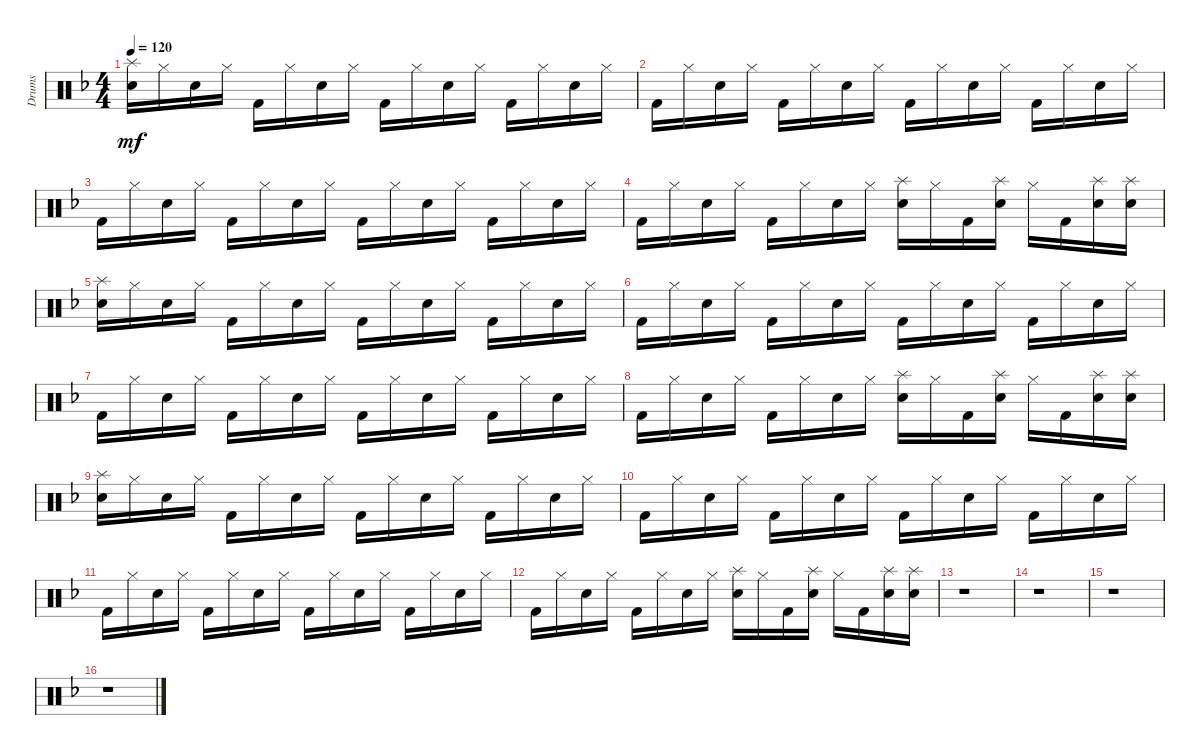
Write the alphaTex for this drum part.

\track ("Drums" "Drums") {instrument percussion}
\staff {score}
\articulation defaults
\ts (4 4)
\tempo 120
\clef neutral
\ks dminor
("Snare (hit) 2" "Splash (hit)").16{dy mf} "Hi-Hat (closed)".16 "Snare (hit) 2".16 "Hi-Hat (closed)".16 "Kick (hit) 2".16 "Hi-Hat (closed)".16 "Snare (hit) 2".16 "Hi-Hat (closed)".16 "Kick (hit) 2".16 "Hi-Hat (closed)".16 "Snare (hit) 2".16 "Hi-Hat (closed)".16 "Kick (hit) 2".16 "Hi-Hat (closed)".16 "Snare (hit) 2".16 "Hi-Hat (closed)".16 |
"Kick (hit) 2".16 "Hi-Hat (closed)".16 "Snare (hit) 2".16 "Hi-Hat (closed)".16 "Kick (hit) 2".16 "Hi-Hat (closed)".16 "Snare (hit) 2".16 "Hi-Hat (closed)".16 "Kick (hit) 2".16 "Hi-Hat (closed)".16 "Snare (hit) 2".16 "Hi-Hat (closed)".16 "Kick (hit) 2".16 "Hi-Hat (closed)".16 "Snare (hit) 2".16 "Hi-Hat (closed)".16 |
"Kick (hit) 2".16 "Hi-Hat (closed)".16 "Snare (hit) 2".16 "Hi-Hat (closed)".16 "Kick (hit) 2".16 "Hi-Hat (closed)".16 "Snare (hit) 2".16 "Hi-Hat (closed)".16 "Kick (hit) 2".16 "Hi-Hat (closed)".16 "Snare (hit) 2".16 "Hi-Hat (closed)".16 "Kick (hit) 2".16 "Hi-Hat (closed)".16 "Snare (hit) 2".16 "Hi-Hat (closed)".16 |
"Kick (hit) 2".16 "Hi-Hat (closed)".16 "Snare (hit) 2".16 "Hi-Hat (closed)".16 "Kick (hit) 2".16 "Hi-Hat (closed)".16 "Snare (hit) 2".16 "Hi-Hat (closed)".16 ("Snare (hit) 2" "Splash (hit)").16 "Hi-Hat (closed)".16 "Kick (hit) 2".16 ("Snare (hit) 2" "Splash (hit)").16 "Hi-Hat (closed)".16 "Kick (hit) 2".16 ("Snare (hit) 2" "Splash (hit)").16 ("Snare (hit) 2" "Splash (hit)").16 |
("Snare (hit) 2" "Splash (hit)").16 "Hi-Hat (closed)".16 "Snare (hit) 2".16 "Hi-Hat (closed)".16 "Kick (hit) 2".16 "Hi-Hat (closed)".16 "Snare (hit) 2".16 "Hi-Hat (closed)".16 "Kick (hit) 2".16 "Hi-Hat (closed)".16 "Snare (hit) 2".16 "Hi-Hat (closed)".16 "Kick (hit) 2".16 "Hi-Hat (closed)".16 "Snare (hit) 2".16 "Hi-Hat (closed)".16 |
"Kick (hit) 2".16 "Hi-Hat (closed)".16 "Snare (hit) 2".16 "Hi-Hat (closed)".16 "Kick (hit) 2".16 "Hi-Hat (closed)".16 "Snare (hit) 2".16 "Hi-Hat (closed)".16 "Kick (hit) 2".16 "Hi-Hat (closed)".16 "Snare (hit) 2".16 "Hi-Hat (closed)".16 "Kick (hit) 2".16 "Hi-Hat (closed)".16 "Snare (hit) 2".16 "Hi-Hat (closed)".16 |
"Kick (hit) 2".16 "Hi-Hat (closed)".16 "Snare (hit) 2".16 "Hi-Hat (closed)".16 "Kick (hit) 2".16 "Hi-Hat (closed)".16 "Snare (hit) 2".16 "Hi-Hat (closed)".16 "Kick (hit) 2".16 "Hi-Hat (closed)".16 "Snare (hit) 2".16 "Hi-Hat (closed)".16 "Kick (hit) 2".16 "Hi-Hat (closed)".16 "Snare (hit) 2".16 "Hi-Hat (closed)".16 |
"Kick (hit) 2".16 "Hi-Hat (closed)".16 "Snare (hit) 2".16 "Hi-Hat (closed)".16 "Kick (hit) 2".16 "Hi-Hat (closed)".16 "Snare (hit) 2".16 "Hi-Hat (closed)".16 ("Snare (hit) 2" "Splash (hit)").16 "Hi-Hat (closed)".16 "Kick (hit) 2".16 ("Snare (hit) 2" "Splash (hit)").16 "Hi-Hat (closed)".16 "Kick (hit) 2".16 ("Snare (hit) 2" "Splash (hit)").16 ("Snare (hit) 2" "Splash (hit)").16 |
("Snare (hit) 2" "Splash (hit)").16 "Hi-Hat (closed)".16 "Snare (hit) 2".16 "Hi-Hat (closed)".16 "Kick (hit) 2".16 "Hi-Hat (closed)".16 "Snare (hit) 2".16 "Hi-Hat (closed)".16 "Kick (hit) 2".16 "Hi-Hat (closed)".16 "Snare (hit) 2".16 "Hi-Hat (closed)".16 "Kick (hit) 2".16 "Hi-Hat (closed)".16 "Snare (hit) 2".16 "Hi-Hat (closed)".16 |
"Kick (hit) 2".16 "Hi-Hat (closed)".16 "Snare (hit) 2".16 "Hi-Hat (closed)".16 "Kick (hit) 2".16 "Hi-Hat (closed)".16 "Snare (hit) 2".16 "Hi-Hat (closed)".16 "Kick (hit) 2".16 "Hi-Hat (closed)".16 "Snare (hit) 2".16 "Hi-Hat (closed)".16 "Kick (hit) 2".16 "Hi-Hat (closed)".16 "Snare (hit) 2".16 "Hi-Hat (closed)".16 |
"Kick (hit) 2".16 "Hi-Hat (closed)".16 "Snare (hit) 2".16 "Hi-Hat (closed)".16 "Kick (hit) 2".16 "Hi-Hat (closed)".16 "Snare (hit) 2".16 "Hi-Hat (closed)".16 "Kick (hit) 2".16 "Hi-Hat (closed)".16 "Snare (hit) 2".16 "Hi-Hat (closed)".16 "Kick (hit) 2".16 "Hi-Hat (closed)".16 "Snare (hit) 2".16 "Hi-Hat (closed)".16 |
"Kick (hit) 2".16 "Hi-Hat (closed)".16 "Snare (hit) 2".16 "Hi-Hat (closed)".16 "Kick (hit) 2".16 "Hi-Hat (closed)".16 "Snare (hit) 2".16 "Hi-Hat (closed)".16 ("Snare (hit) 2" "Splash (hit)").16 "Hi-Hat (closed)".16 "Kick (hit) 2".16 ("Snare (hit) 2" "Splash (hit)").16 "Hi-Hat (closed)".16 "Kick (hit) 2".16 ("Snare (hit) 2" "Splash (hit)").16 ("Snare (hit) 2" "Splash (hit)").16 |
\section ("" "")
r.1 |
r.1 |
r.1 |
r.1
